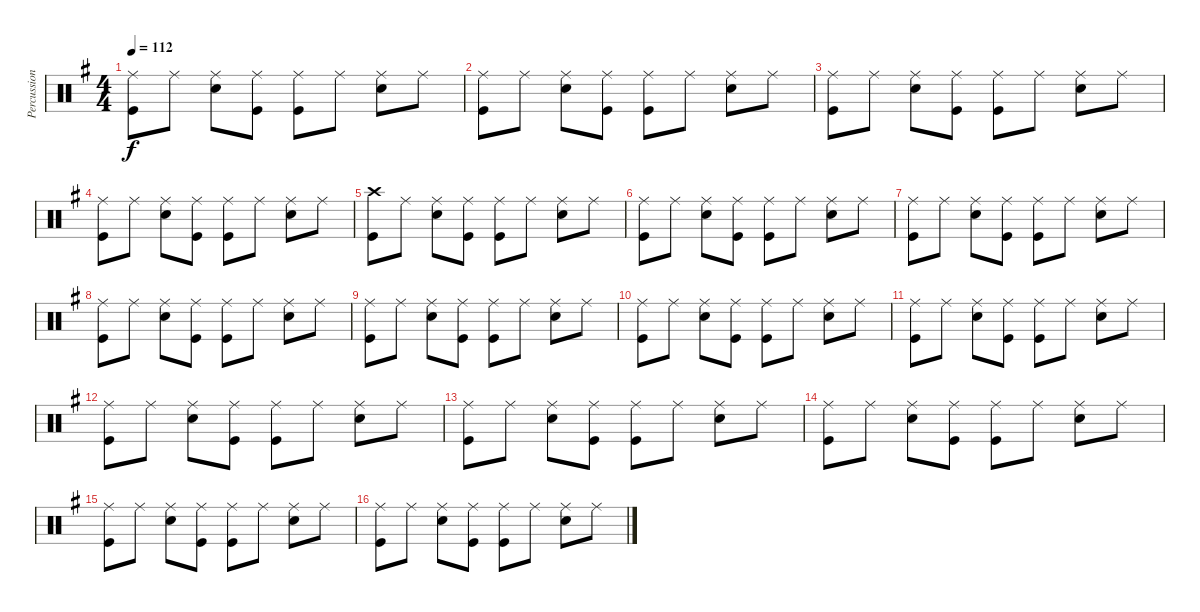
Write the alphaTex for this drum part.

\track ("Percussion" "Percussion") {instrument percussion}
\staff {score}
\articulation defaults
\ts (4 4)
\tempo 112
\clef neutral
\ks g
("Ride (middle)" "Kick (hit)").8{dy f} "Ride (middle)".8 ("Ride (middle)" "Snare (hit) 2").8 ("Ride (middle)" "Kick (hit)").8 ("Ride (middle)" "Kick (hit)").8 "Ride (middle)".8 ("Ride (middle)" "Snare (hit) 2").8 "Ride (middle)".8 |
("Ride (middle)" "Kick (hit)").8 "Ride (middle)".8 ("Ride (middle)" "Snare (hit) 2").8 ("Ride (middle)" "Kick (hit)").8 ("Ride (middle)" "Kick (hit)").8 "Ride (middle)".8 ("Ride (middle)" "Snare (hit) 2").8 "Ride (middle)".8 |
("Ride (middle)" "Kick (hit)").8 "Ride (middle)".8 ("Ride (middle)" "Snare (hit) 2").8 ("Ride (middle)" "Kick (hit)").8 ("Ride (middle)" "Kick (hit)").8 "Ride (middle)".8 ("Ride (middle)" "Snare (hit) 2").8 "Ride (middle)".8 |
("Ride (middle)" "Kick (hit)").8 "Ride (middle)".8 ("Ride (middle)" "Snare (hit) 2").8 ("Ride (middle)" "Kick (hit)").8 ("Ride (middle)" "Kick (hit)").8 "Ride (middle)".8 ("Ride (middle)" "Snare (hit) 2").8 "Ride (middle)".8 |
("Crash high (hit)" "Kick (hit)").8 "Ride (middle)".8 ("Ride (middle)" "Snare (hit) 2").8 ("Ride (middle)" "Kick (hit)").8 ("Ride (middle)" "Kick (hit)").8 "Ride (middle)".8 ("Ride (middle)" "Snare (hit) 2").8 "Ride (middle)".8 |
("Ride (middle)" "Kick (hit)").8 "Ride (middle)".8 ("Ride (middle)" "Snare (hit) 2").8 ("Ride (middle)" "Kick (hit)").8 ("Ride (middle)" "Kick (hit)").8 "Ride (middle)".8 ("Ride (middle)" "Snare (hit) 2").8 "Ride (middle)".8 |
("Ride (middle)" "Kick (hit)").8 "Ride (middle)".8 ("Ride (middle)" "Snare (hit) 2").8 ("Ride (middle)" "Kick (hit)").8 ("Ride (middle)" "Kick (hit)").8 "Ride (middle)".8 ("Ride (middle)" "Snare (hit) 2").8 "Ride (middle)".8 |
("Ride (middle)" "Kick (hit)").8 "Ride (middle)".8 ("Ride (middle)" "Snare (hit) 2").8 ("Ride (middle)" "Kick (hit)").8 ("Ride (middle)" "Kick (hit)").8 "Ride (middle)".8 ("Ride (middle)" "Snare (hit) 2").8 "Ride (middle)".8 |
("Ride (middle)" "Kick (hit)").8 "Ride (middle)".8 ("Ride (middle)" "Snare (hit) 2").8 ("Ride (middle)" "Kick (hit)").8 ("Ride (middle)" "Kick (hit)").8 "Ride (middle)".8 ("Ride (middle)" "Snare (hit) 2").8 "Ride (middle)".8 |
("Ride (middle)" "Kick (hit)").8 "Ride (middle)".8 ("Ride (middle)" "Snare (hit) 2").8 ("Ride (middle)" "Kick (hit)").8 ("Ride (middle)" "Kick (hit)").8 "Ride (middle)".8 ("Ride (middle)" "Snare (hit) 2").8 "Ride (middle)".8 |
("Ride (middle)" "Kick (hit)").8 "Ride (middle)".8 ("Ride (middle)" "Snare (hit) 2").8 ("Ride (middle)" "Kick (hit)").8 ("Ride (middle)" "Kick (hit)").8 "Ride (middle)".8 ("Ride (middle)" "Snare (hit) 2").8 "Ride (middle)".8 |
("Ride (middle)" "Kick (hit)").8 "Ride (middle)".8 ("Ride (middle)" "Snare (hit) 2").8 ("Ride (middle)" "Kick (hit)").8 ("Ride (middle)" "Kick (hit)").8 "Ride (middle)".8 ("Ride (middle)" "Snare (hit) 2").8 "Ride (middle)".8 |
("Ride (middle)" "Kick (hit)").8 "Ride (middle)".8 ("Ride (middle)" "Snare (hit) 2").8 ("Ride (middle)" "Kick (hit)").8 ("Ride (middle)" "Kick (hit)").8 "Ride (middle)".8 ("Ride (middle)" "Snare (hit) 2").8 "Ride (middle)".8 |
("Ride (middle)" "Kick (hit)").8 "Ride (middle)".8 ("Ride (middle)" "Snare (hit) 2").8 ("Ride (middle)" "Kick (hit)").8 ("Ride (middle)" "Kick (hit)").8 "Ride (middle)".8 ("Ride (middle)" "Snare (hit) 2").8 "Ride (middle)".8 |
("Ride (middle)" "Kick (hit)").8 "Ride (middle)".8 ("Ride (middle)" "Snare (hit) 2").8 ("Ride (middle)" "Kick (hit)").8 ("Ride (middle)" "Kick (hit)").8 "Ride (middle)".8 ("Ride (middle)" "Snare (hit) 2").8 "Ride (middle)".8 |
("Ride (middle)" "Kick (hit)").8 "Ride (middle)".8 ("Ride (middle)" "Snare (hit) 2").8 ("Ride (middle)" "Kick (hit)").8 ("Ride (middle)" "Kick (hit)").8 "Ride (middle)".8 ("Ride (middle)" "Snare (hit) 2").8 "Ride (middle)".8
